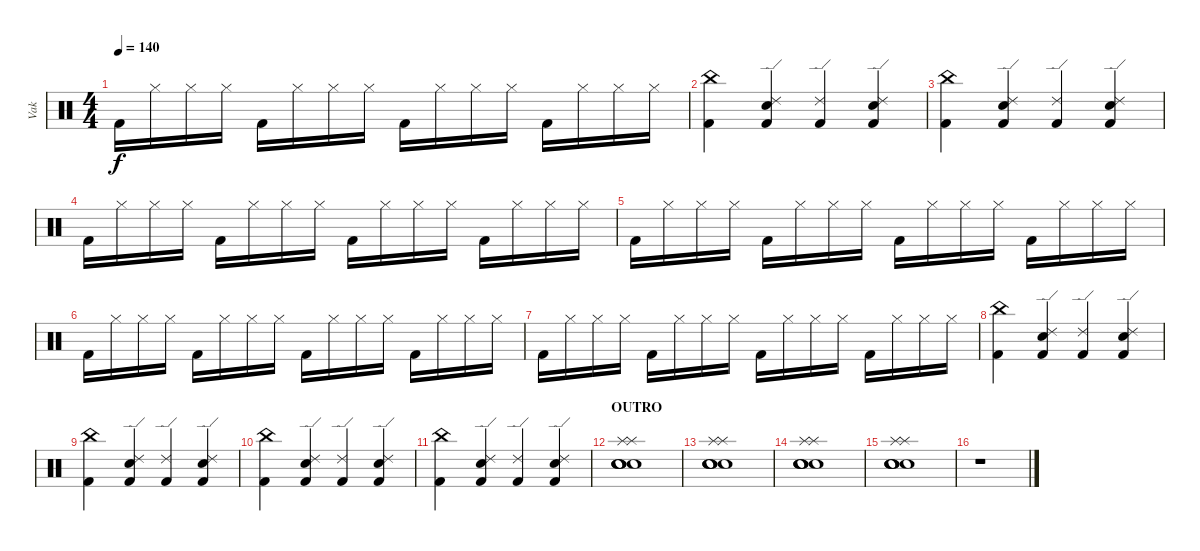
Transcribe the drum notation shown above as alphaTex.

\track ("Vak" "Vak") {instrument percussion}
\staff {score}
\articulation defaults
\ts (4 4)
\tempo 140
\clef neutral
\ks c "Kick (hit) 2".16{dy f} "Hi-Hat (closed)".16 "Hi-Hat (closed)".16 "Hi-Hat (closed)".16 "Kick (hit) 2".16 "Hi-Hat (closed)".16 "Hi-Hat (closed)".16 "Hi-Hat (closed)".16 "Kick (hit) 2".16 "Hi-Hat (closed)".16 "Hi-Hat (closed)".16 "Hi-Hat (closed)".16 "Kick (hit) 2".16 "Hi-Hat (closed)".16 "Hi-Hat (closed)".16 "Hi-Hat (closed)".16
|
("Kick (hit) 2" "China (hit)").4 ("Kick (hit) 2" "Snare (hit) 2" "Ride (edge) 2").4 ("Kick (hit) 2" "Ride (edge) 2").4 ("Kick (hit) 2" "Snare (hit) 2" "Ride (edge) 2").4 |
("Kick (hit) 2" "China (hit)").4 ("Kick (hit) 2" "Snare (hit) 2" "Ride (edge) 2").4 ("Kick (hit) 2" "Ride (edge) 2").4 ("Kick (hit) 2" "Snare (hit) 2" "Ride (edge) 2").4 |
"Kick (hit) 2".16 "Hi-Hat (closed)".16 "Hi-Hat (closed)".16 "Hi-Hat (closed)".16 "Kick (hit) 2".16 "Hi-Hat (closed)".16 "Hi-Hat (closed)".16 "Hi-Hat (closed)".16 "Kick (hit) 2".16 "Hi-Hat (closed)".16 "Hi-Hat (closed)".16 "Hi-Hat (closed)".16 "Kick (hit) 2".16 "Hi-Hat (closed)".16 "Hi-Hat (closed)".16 "Hi-Hat (closed)".16 |
"Kick (hit) 2".16 "Hi-Hat (closed)".16 "Hi-Hat (closed)".16 "Hi-Hat (closed)".16 "Kick (hit) 2".16 "Hi-Hat (closed)".16 "Hi-Hat (closed)".16 "Hi-Hat (closed)".16 "Kick (hit) 2".16 "Hi-Hat (closed)".16 "Hi-Hat (closed)".16 "Hi-Hat (closed)".16 "Kick (hit) 2".16 "Hi-Hat (closed)".16 "Hi-Hat (closed)".16 "Hi-Hat (closed)".16 |
"Kick (hit) 2".16 "Hi-Hat (closed)".16 "Hi-Hat (closed)".16 "Hi-Hat (closed)".16 "Kick (hit) 2".16 "Hi-Hat (closed)".16 "Hi-Hat (closed)".16 "Hi-Hat (closed)".16 "Kick (hit) 2".16 "Hi-Hat (closed)".16 "Hi-Hat (closed)".16 "Hi-Hat (closed)".16 "Kick (hit) 2".16 "Hi-Hat (closed)".16 "Hi-Hat (closed)".16 "Hi-Hat (closed)".16 |
"Kick (hit) 2".16 "Hi-Hat (closed)".16 "Hi-Hat (closed)".16 "Hi-Hat (closed)".16 "Kick (hit) 2".16 "Hi-Hat (closed)".16 "Hi-Hat (closed)".16 "Hi-Hat (closed)".16 "Kick (hit) 2".16 "Hi-Hat (closed)".16 "Hi-Hat (closed)".16 "Hi-Hat (closed)".16 "Kick (hit) 2".16 "Hi-Hat (closed)".16 "Hi-Hat (closed)".16 "Hi-Hat (closed)".16 |
("Kick (hit) 2" "China (hit)").4 ("Kick (hit) 2" "Snare (hit) 2" "Ride (edge) 2").4 ("Kick (hit) 2" "Ride (edge) 2").4 ("Kick (hit) 2" "Snare (hit) 2" "Ride (edge) 2").4 |
("Kick (hit) 2" "China (hit)").4 ("Kick (hit) 2" "Snare (hit) 2" "Ride (edge) 2").4 ("Kick (hit) 2" "Ride (edge) 2").4 ("Kick (hit) 2" "Snare (hit) 2" "Ride (edge) 2").4 |
("Kick (hit) 2" "China (hit)").4 ("Kick (hit) 2" "Snare (hit) 2" "Ride (edge) 2").4 ("Kick (hit) 2" "Ride (edge) 2").4 ("Kick (hit) 2" "Snare (hit) 2" "Ride (edge) 2").4 |
("Kick (hit) 2" "China (hit)").4 ("Kick (hit) 2" "Snare (hit) 2" "Ride (edge) 2").4 ("Kick (hit) 2" "Ride (edge) 2").4 ("Kick (hit) 2" "Snare (hit) 2" "Ride (edge) 2").4 |
\section ("" "OUTRO")
("Snare (hit) 2" "Splash (hit)" "Snare (hit) 2" "Splash (hit)" "Snare (hit) 2" "Snare (hit) 2").1 |
("Snare (hit) 2" "Splash (hit)" "Snare (hit) 2" "Splash (hit)" "Snare (hit) 2" "Snare (hit) 2").1 |
("Snare (hit) 2" "Splash (hit)" "Snare (hit) 2" "Splash (hit)" "Snare (hit) 2" "Snare (hit) 2").1 |
("Snare (hit) 2" "Splash (hit)" "Snare (hit) 2" "Splash (hit)" "Snare (hit) 2" "Snare (hit) 2").1 |
r.1
